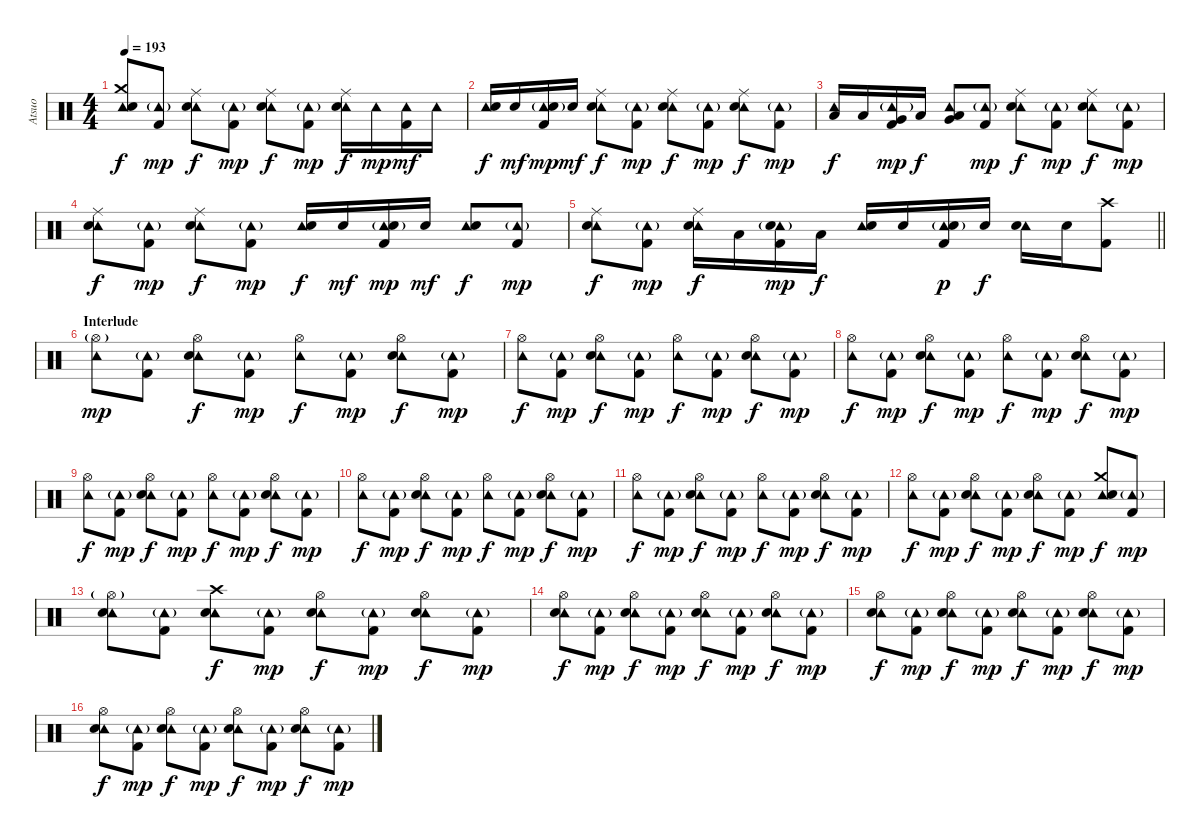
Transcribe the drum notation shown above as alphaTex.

\track ("Atsuo" "Atsuo") {instrument percussion}
\staff {score}
\articulation defaults
\ts (4 4)
\tempo 193
\clef neutral
\ks c
("Tambourine (hit)" "Crash medium (hit)" "Electric Snare (hit)").8{dy f} ("Tambourine (hit)"{g} "Kick (hit) 2").8{dy mp} ("Ride (middle)" "Tambourine (hit)" "Electric Snare (hit)").8{dy f} ("Tambourine (hit)"{g} "Kick (hit) 2").8{dy mp} ("Ride (middle)" "Tambourine (hit)" "Electric Snare (hit)").8{dy f} ("Tambourine (hit)"{g} "Kick (hit) 2").8{dy mp} ("Ride (middle)" "Tambourine (hit)" "Electric Snare (hit)").16{dy f} "Tambourine (hit)".16{dy mp} ("Tambourine (hit)" "Kick (hit) 2").16{dy mf} "Tambourine (hit)".16 |
("Tambourine (hit)" "Electric Snare (hit)").16{dy f} "Electric Snare (hit)".16{dy mf} ("Tambourine (hit)"{g} "Electric Snare (hit)" "Kick (hit) 2").16{dy mp} "Electric Snare (hit)".16{dy mf} ("Ride (middle)" "Tambourine (hit)" "Electric Snare (hit)").8{dy f} ("Tambourine (hit)"{g} "Kick (hit) 2").8{dy mp} ("Ride (middle)" "Tambourine (hit)" "Electric Snare (hit)").8{dy f} ("Tambourine (hit)"{g} "Kick (hit) 2").8{dy mp} ("Ride (middle)" "Tambourine (hit)" "Electric Snare (hit)").8{dy f} ("Tambourine (hit)"{g} "Kick (hit) 2").8{dy mp} |
("Tambourine (hit)" "Low Tom (hit)").16{dy f} "Low Tom (hit)".16 ("Tambourine (hit)"{g} "Very Low Tom (hit)" "Kick (hit) 2").16{dy mp} "Low Floor Tom (hit)".16{dy f} ("Tambourine (hit)" "Very Low Tom (hit)" "Low Floor Tom (hit)").8 ("Tambourine (hit)"{g} "Kick (hit) 2").8{dy mp} ("Ride (middle)" "Tambourine (hit)" "Electric Snare (hit)").8{dy f} ("Tambourine (hit)"{g} "Kick (hit) 2").8{dy mp} ("Ride (middle)" "Tambourine (hit)" "Electric Snare (hit)").8{dy f} ("Tambourine (hit)"{g} "Kick (hit) 2").8{dy mp} |
("Ride (middle)" "Tambourine (hit)" "Electric Snare (hit)").8{dy f} ("Tambourine (hit)"{g} "Kick (hit) 2").8{dy mp} ("Ride (middle)" "Tambourine (hit)" "Electric Snare (hit)").8{dy f} ("Tambourine (hit)"{g} "Kick (hit) 2").8{dy mp} ("Tambourine (hit)" "Electric Snare (hit)").16{dy f} "Electric Snare (hit)".16{dy mf} ("Tambourine (hit)"{g} "Electric Snare (hit)" "Kick (hit) 2").16{dy mp} "Electric Snare (hit)".16{dy mf} ("Tambourine (hit)" "Electric Snare (hit)").8{dy f} ("Tambourine (hit)"{g} "Kick (hit) 2").8{dy mp} |
\barLineRight lightlight
("Ride (middle)" "Tambourine (hit)" "Electric Snare (hit)").8{dy f} ("Tambourine (hit)"{g} "Kick (hit) 2").8{dy mp} ("Ride (middle)" "Tambourine (hit)" "Electric Snare (hit)").16{dy f} "Low Tom (hit)".16 ("Tambourine (hit)"{g} "Electric Snare (hit)" "Kick (hit) 2").16{dy mp} "Low Tom (hit)".16{dy f} ("Tambourine (hit)" "Electric Snare (hit)").16 "Electric Snare (hit)".16 ("Tambourine (hit)"{g} "Electric Snare (hit)" "Kick (hit) 2").16{dy p} "Electric Snare (hit)".16{dy f} ("Tambourine (hit)" "Electric Snare (hit)").16 "Electric Snare (hit)".16 ("Crash high (hit)" "Kick (hit) 2").8 |
\section ("" "Interlude")
("Hi-Hat (open)"{g} "Tambourine (hit)").8{dy mp} ("Tambourine (hit)"{g} "Kick (hit) 2").8 ("Hi-Hat (open)" "Tambourine (hit)" "Electric Snare (hit)").8{dy f} ("Tambourine (hit)"{g} "Kick (hit) 2").8{dy mp} ("Hi-Hat (open)" "Tambourine (hit)").8{dy f} ("Tambourine (hit)"{g} "Kick (hit) 2").8{dy mp} ("Hi-Hat (open)" "Tambourine (hit)" "Electric Snare (hit)").8{dy f} ("Tambourine (hit)"{g} "Kick (hit) 2").8{dy mp} |
("Hi-Hat (open)" "Tambourine (hit)").8{dy f} ("Tambourine (hit)"{g} "Kick (hit) 2").8{dy mp} ("Hi-Hat (open)" "Tambourine (hit)" "Electric Snare (hit)").8{dy f} ("Tambourine (hit)"{g} "Kick (hit) 2").8{dy mp} ("Hi-Hat (open)" "Tambourine (hit)").8{dy f} ("Tambourine (hit)"{g} "Kick (hit) 2").8{dy mp} ("Hi-Hat (open)" "Tambourine (hit)" "Electric Snare (hit)").8{dy f} ("Tambourine (hit)"{g} "Kick (hit) 2").8{dy mp} |
("Hi-Hat (open)" "Tambourine (hit)").8{dy f} ("Tambourine (hit)"{g} "Kick (hit) 2").8{dy mp} ("Hi-Hat (open)" "Tambourine (hit)" "Electric Snare (hit)").8{dy f} ("Tambourine (hit)"{g} "Kick (hit) 2").8{dy mp} ("Hi-Hat (open)" "Tambourine (hit)").8{dy f} ("Tambourine (hit)"{g} "Kick (hit) 2").8{dy mp} ("Hi-Hat (open)" "Tambourine (hit)" "Electric Snare (hit)").8{dy f} ("Tambourine (hit)"{g} "Kick (hit) 2").8{dy mp} |
("Hi-Hat (open)" "Tambourine (hit)").8{dy f} ("Tambourine (hit)"{g} "Kick (hit) 2").8{dy mp} ("Hi-Hat (open)" "Tambourine (hit)" "Electric Snare (hit)").8{dy f} ("Tambourine (hit)"{g} "Kick (hit) 2").8{dy mp} ("Hi-Hat (open)" "Tambourine (hit)").8{dy f} ("Tambourine (hit)"{g} "Kick (hit) 2").8{dy mp} ("Hi-Hat (open)" "Tambourine (hit)" "Electric Snare (hit)").8{dy f} ("Tambourine (hit)"{g} "Kick (hit) 2").8{dy mp} |
("Hi-Hat (open)" "Tambourine (hit)").8{dy f} ("Tambourine (hit)"{g} "Kick (hit) 2").8{dy mp} ("Hi-Hat (open)" "Tambourine (hit)" "Electric Snare (hit)").8{dy f} ("Tambourine (hit)"{g} "Kick (hit) 2").8{dy mp} ("Hi-Hat (open)" "Tambourine (hit)").8{dy f} ("Tambourine (hit)"{g} "Kick (hit) 2").8{dy mp} ("Hi-Hat (open)" "Tambourine (hit)" "Electric Snare (hit)").8{dy f} ("Tambourine (hit)"{g} "Kick (hit) 2").8{dy mp} |
("Hi-Hat (open)" "Tambourine (hit)").8{dy f} ("Tambourine (hit)"{g} "Kick (hit) 2").8{dy mp} ("Hi-Hat (open)" "Tambourine (hit)" "Electric Snare (hit)").8{dy f} ("Tambourine (hit)"{g} "Kick (hit) 2").8{dy mp} ("Hi-Hat (open)" "Tambourine (hit)").8{dy f} ("Tambourine (hit)"{g} "Kick (hit) 2").8{dy mp} ("Hi-Hat (open)" "Tambourine (hit)" "Electric Snare (hit)").8{dy f} ("Tambourine (hit)"{g} "Kick (hit) 2").8{dy mp} |
("Hi-Hat (open)" "Tambourine (hit)").8{dy f} ("Tambourine (hit)"{g} "Kick (hit) 2").8{dy mp} ("Hi-Hat (open)" "Tambourine (hit)" "Electric Snare (hit)").8{dy f} ("Tambourine (hit)"{g} "Kick (hit) 2").8{dy mp} ("Hi-Hat (open)" "Tambourine (hit)" "Electric Snare (hit)").8{dy f} ("Tambourine (hit)"{g} "Kick (hit) 2").8{dy mp} ("Tambourine (hit)" "Crash medium (hit)" "Electric Snare (hit)").8{dy f} ("Tambourine (hit)"{g} "Kick (hit) 2").8{dy mp} |
("Hi-Hat (open)"{g} "Tambourine (hit)" "Electric Snare (hit)").8 ("Tambourine (hit)"{g} "Kick (hit) 2").8 ("Tambourine (hit)" "Crash high (hit)" "Electric Snare (hit)").8{dy f} ("Tambourine (hit)"{g} "Kick (hit) 2").8{dy mp} ("Hi-Hat (open)" "Tambourine (hit)" "Electric Snare (hit)").8{dy f} ("Tambourine (hit)"{g} "Kick (hit) 2").8{dy mp} ("Hi-Hat (open)" "Tambourine (hit)" "Electric Snare (hit)").8{dy f} ("Tambourine (hit)"{g} "Kick (hit) 2").8{dy mp} |
("Hi-Hat (open)" "Tambourine (hit)" "Electric Snare (hit)").8{dy f} ("Tambourine (hit)"{g} "Kick (hit) 2").8{dy mp} ("Hi-Hat (open)" "Tambourine (hit)" "Electric Snare (hit)").8{dy f} ("Tambourine (hit)"{g} "Kick (hit) 2").8{dy mp} ("Hi-Hat (open)" "Tambourine (hit)" "Electric Snare (hit)").8{dy f} ("Tambourine (hit)"{g} "Kick (hit) 2").8{dy mp} ("Hi-Hat (open)" "Tambourine (hit)" "Electric Snare (hit)").8{dy f} ("Tambourine (hit)"{g} "Kick (hit) 2").8{dy mp} |
("Hi-Hat (open)" "Tambourine (hit)" "Electric Snare (hit)").8{dy f} ("Tambourine (hit)"{g} "Kick (hit) 2").8{dy mp} ("Hi-Hat (open)" "Tambourine (hit)" "Electric Snare (hit)").8{dy f} ("Tambourine (hit)"{g} "Kick (hit) 2").8{dy mp} ("Hi-Hat (open)" "Tambourine (hit)" "Electric Snare (hit)").8{dy f} ("Tambourine (hit)"{g} "Kick (hit) 2").8{dy mp} ("Hi-Hat (open)" "Tambourine (hit)" "Electric Snare (hit)").8{dy f} ("Tambourine (hit)"{g} "Kick (hit) 2").8{dy mp} |
("Hi-Hat (open)" "Tambourine (hit)" "Electric Snare (hit)").8{dy f} ("Tambourine (hit)"{g} "Kick (hit) 2").8{dy mp} ("Hi-Hat (open)" "Tambourine (hit)" "Electric Snare (hit)").8{dy f} ("Tambourine (hit)"{g} "Kick (hit) 2").8{dy mp} ("Hi-Hat (open)" "Tambourine (hit)" "Electric Snare (hit)").8{dy f} ("Tambourine (hit)"{g} "Kick (hit) 2").8{dy mp} ("Hi-Hat (open)" "Tambourine (hit)" "Electric Snare (hit)").8{dy f} ("Tambourine (hit)"{g} "Kick (hit) 2").8{dy mp}
